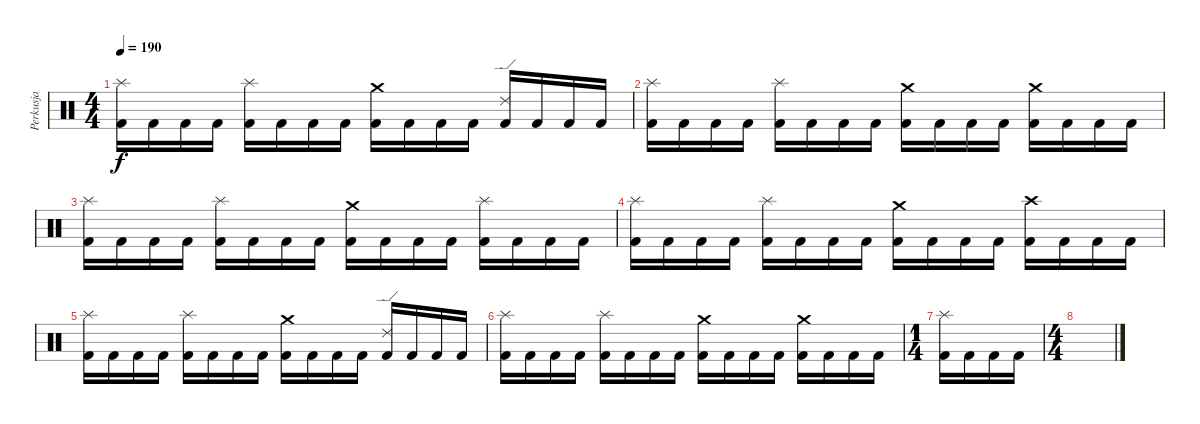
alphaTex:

\track ("Perkusja" "Perkusja") {instrument percussion}
\staff {score}
\articulation defaults
\ts (4 4)
\tempo 190
\clef neutral
\ks c
("Splash (hit)" "Kick (hit) 2").16{dy f} "Kick (hit) 2".16 "Kick (hit) 2".16 "Kick (hit) 2".16 ("Splash (hit)" "Kick (hit) 2").16 "Kick (hit) 2".16 "Kick (hit) 2".16 "Kick (hit) 2".16 ("Crash medium (hit)" "Kick (hit) 2").16 "Kick (hit) 2".16 "Kick (hit) 2".16 "Kick (hit) 2".16 ("Ride (edge) 2" "Kick (hit) 2").16 "Kick (hit) 2".16 "Kick (hit) 2".16 "Kick (hit) 2".16 |
("Splash (hit)" "Kick (hit) 2").16 "Kick (hit) 2".16 "Kick (hit) 2".16 "Kick (hit) 2".16 ("Splash (hit)" "Kick (hit) 2").16 "Kick (hit) 2".16 "Kick (hit) 2".16 "Kick (hit) 2".16 ("Crash medium (hit)" "Kick (hit) 2").16 "Kick (hit) 2".16 "Kick (hit) 2".16 "Kick (hit) 2".16 ("Crash medium (hit)" "Kick (hit) 2").16 "Kick (hit) 2".16 "Kick (hit) 2".16 "Kick (hit) 2".16 |
("Splash (hit)" "Kick (hit) 2").16{volume 12} "Kick (hit) 2".16 "Kick (hit) 2".16 "Kick (hit) 2".16 ("Splash (hit)" "Kick (hit) 2").16 "Kick (hit) 2".16 "Kick (hit) 2".16 "Kick (hit) 2".16 ("Crash medium (hit)" "Kick (hit) 2").16 "Kick (hit) 2".16 "Kick (hit) 2".16 "Kick (hit) 2".16 ("Splash (hit)" "Kick (hit) 2").16 "Kick (hit) 2".16 "Kick (hit) 2".16 "Kick (hit) 2".16 |
("Splash (hit)" "Kick (hit) 2").16 "Kick (hit) 2".16 "Kick (hit) 2".16 "Kick (hit) 2".16 ("Splash (hit)" "Kick (hit) 2").16 "Kick (hit) 2".16 "Kick (hit) 2".16 "Kick (hit) 2".16 ("Crash medium (hit)" "Kick (hit) 2").16 "Kick (hit) 2".16 "Kick (hit) 2".16 "Kick (hit) 2".16 ("Crash high (hit)" "Kick (hit) 2").16 "Kick (hit) 2".16 "Kick (hit) 2".16 "Kick (hit) 2".16 |
("Splash (hit)" "Kick (hit) 2").16 "Kick (hit) 2".16 "Kick (hit) 2".16 "Kick (hit) 2".16 ("Splash (hit)" "Kick (hit) 2").16 "Kick (hit) 2".16 "Kick (hit) 2".16 "Kick (hit) 2".16 ("Crash medium (hit)" "Kick (hit) 2").16 "Kick (hit) 2".16 "Kick (hit) 2".16 "Kick (hit) 2".16 ("Ride (edge) 2" "Kick (hit) 2").16 "Kick (hit) 2".16 "Kick (hit) 2".16 "Kick (hit) 2".16 |
("Splash (hit)" "Kick (hit) 2").16 "Kick (hit) 2".16 "Kick (hit) 2".16 "Kick (hit) 2".16 ("Splash (hit)" "Kick (hit) 2").16 "Kick (hit) 2".16 "Kick (hit) 2".16 "Kick (hit) 2".16 ("Crash medium (hit)" "Kick (hit) 2").16 "Kick (hit) 2".16 "Kick (hit) 2".16 "Kick (hit) 2".16 ("Crash medium (hit)" "Kick (hit) 2").16 "Kick (hit) 2".16 "Kick (hit) 2".16 "Kick (hit) 2".16 |
\ts (1 4)
("Splash (hit)" "Kick (hit) 2").16 "Kick (hit) 2".16 "Kick (hit) 2".16 "Kick (hit) 2".16 |
\ts (4 4)
